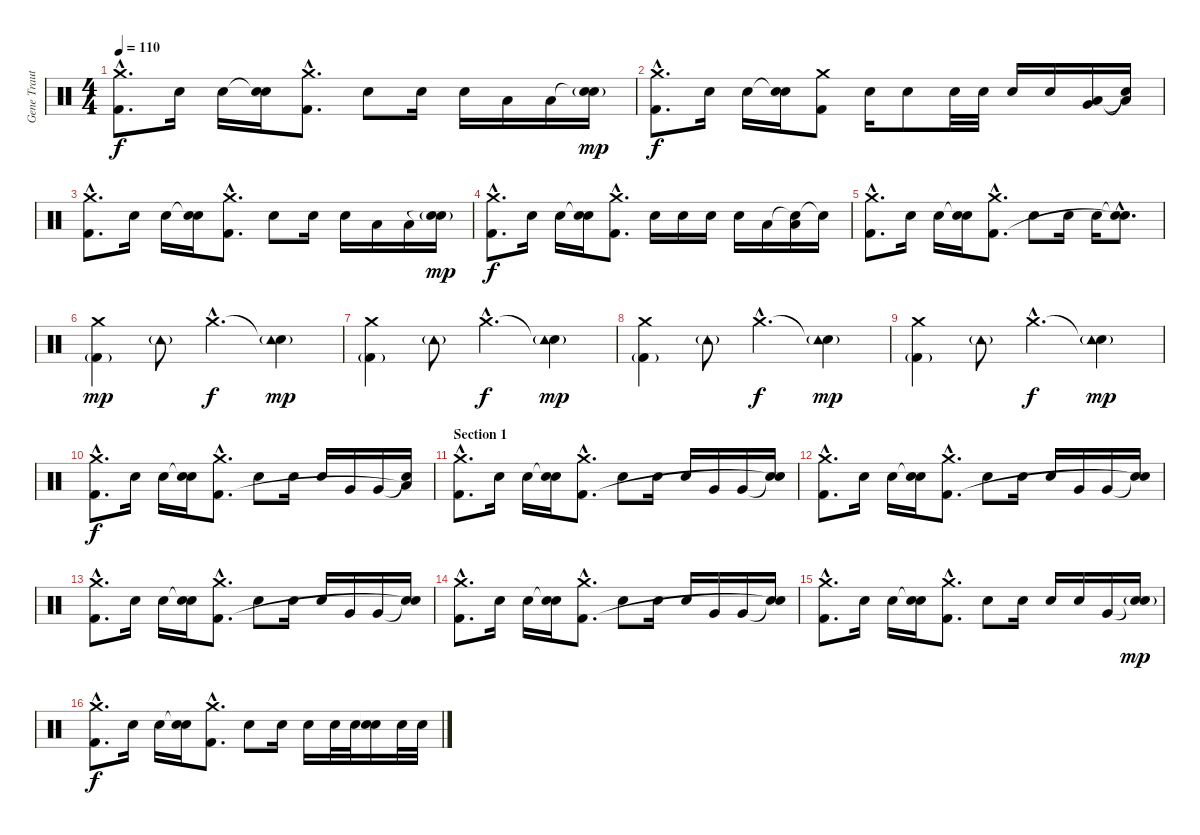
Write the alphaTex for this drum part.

\track ("Gene Trautmann (Drums)" "Gene Traut") {instrument percussion}
\staff {score}
\articulation defaults
\ts (4 4)
\tempo 110
\clef neutral
\ks c
("Crash medium (hit)"{hac} "Kick (hit) 2"{hac}).8{d dy f} "Electric Snare (hit)".16 "Electric Snare (hit)".16 ("Snare (hit)"{t} "Electric Snare (hit)").16 ("Crash medium (hit)"{hac} "Kick (hit) 2"{hac}).8{d} "Electric Snare (hit)".8 "Electric Snare (hit)".16 "Electric Snare (hit)".16 "Low Floor Tom (hit)".16 "Low Floor Tom (hit)".16 ("Snare (hit)"{t} "Electric Snare (hit)"{g}).16{dy mp} |
("Crash medium (hit)"{hac} "Kick (hit) 2"{hac}).8{d dy f} "Electric Snare (hit)".16 "Electric Snare (hit)".16 ("Snare (hit)"{t} "Electric Snare (hit)").16 ("Crash medium (hit)" "Kick (hit) 2").8 "Electric Snare (hit)".16 "Electric Snare (hit)".8 "Electric Snare (hit)".32 "Electric Snare (hit)".32 "Electric Snare (hit)".16 "Electric Snare (hit)".16 ("Very Low Tom (hit)" "Low Floor Tom (hit)").16 ("Snare (hit)"{t} "Low Floor Tom (hit)"{t}).16 |
("Crash medium (hit)"{hac} "Kick (hit) 2"{hac}).8{d} "Electric Snare (hit)".16 "Electric Snare (hit)".16 ("Snare (hit)"{t} "Electric Snare (hit)").16 ("Crash medium (hit)"{hac} "Kick (hit) 2"{hac}).8{d} "Electric Snare (hit)".8 "Electric Snare (hit)".16 "Electric Snare (hit)".16 "Low Floor Tom (hit)".16 "Low Floor Tom (hit)".16 ("Snare (hit)"{t} "Electric Snare (hit)"{g}).16{dy mp} |
("Crash medium (hit)"{hac} "Kick (hit) 2"{hac}).8{d dy f} "Electric Snare (hit)".16 "Electric Snare (hit)".16 ("Snare (hit)"{t} "Electric Snare (hit)").16 ("Crash medium (hit)"{hac} "Kick (hit) 2"{hac}).8{d} "Electric Snare (hit)".16 "Electric Snare (hit)".16 "Electric Snare (hit)".16 "Electric Snare (hit)".16 "Low Floor Tom (hit)".16 ("Snare (hit)"{t} "Low Floor Tom (hit)").16 "Snare (hit)"{t}.16 |
("Crash medium (hit)"{hac} "Kick (hit) 2"{hac}).8{d} "Electric Snare (hit)".16 "Electric Snare (hit)".16 ("Snare (hit)"{t} "Electric Snare (hit)").16 ("Crash medium (hit)"{hac} "Kick (hit) 2"{hac}).8{d} "Electric Snare (hit)".8 "Electric Snare (hit)".16 "Electric Snare (hit)".16 ("Snare (hit)"{hac t} "Electric Snare (hit)"{hac t}).8{d} |
("Crash medium (hit)" "Kick (hit) 2"{g}).4{dy mp} "Tambourine (hit)"{g}.8 "Crash medium (hit)"{hac}.4{d dy f} ("Snare (hit)"{t} "Tambourine (hit)"{g}).4{dy mp} |
("Crash medium (hit)" "Kick (hit) 2"{g}).4 "Tambourine (hit)"{g}.8 "Crash medium (hit)"{hac}.4{d dy f} ("Snare (hit)"{t} "Tambourine (hit)"{g}).4{dy mp} |
("Crash medium (hit)" "Kick (hit) 2"{g}).4 "Tambourine (hit)"{g}.8 "Crash medium (hit)"{hac}.4{d dy f} ("Snare (hit)"{t} "Tambourine (hit)"{g}).4{dy mp} |
("Crash medium (hit)" "Kick (hit) 2"{g}).4 "Tambourine (hit)"{g}.8 "Crash medium (hit)"{hac}.4{d dy f} ("Snare (hit)"{t} "Tambourine (hit)"{g}).4{dy mp} |
("Crash medium (hit)"{hac} "Kick (hit) 2"{hac}).8{d dy f} "Electric Snare (hit)".16 "Electric Snare (hit)".16 ("Snare (hit)"{t} "Electric Snare (hit)").16 ("Crash medium (hit)"{hac} "Kick (hit) 2"{hac}).8{d} "Electric Snare (hit)".8 "Electric Snare (hit)".16 "Electric Snare (hit)".16 "Very Low Tom (hit)".16 "Very Low Tom (hit)".16 ("Snare (hit)"{t} "Low Floor Tom (hit)"{t}).16 |
\section ("" "Section 1")
("Crash medium (hit)"{hac} "Kick (hit) 2"{hac}).8{d} "Electric Snare (hit)".16 "Electric Snare (hit)".16 ("Snare (hit)"{t} "Electric Snare (hit)").16 ("Crash medium (hit)"{hac} "Kick (hit) 2"{hac}).8{d} "Electric Snare (hit)".8 "Electric Snare (hit)".16 "Electric Snare (hit)".16 "Very Low Tom (hit)".16 "Very Low Tom (hit)".16 ("Snare (hit)"{t} "Snare (hit)"{t}).16 |
("Crash medium (hit)"{hac} "Kick (hit) 2"{hac}).8{d} "Electric Snare (hit)".16 "Electric Snare (hit)".16 ("Snare (hit)"{t} "Electric Snare (hit)").16 ("Crash medium (hit)"{hac} "Kick (hit) 2"{hac}).8{d} "Electric Snare (hit)".8 "Electric Snare (hit)".16 "Electric Snare (hit)".16 "Very Low Tom (hit)".16 "Very Low Tom (hit)".16 ("Snare (hit)"{t} "Snare (hit)"{t}).16 |
("Crash medium (hit)"{hac} "Kick (hit) 2"{hac}).8{d} "Electric Snare (hit)".16 "Electric Snare (hit)".16 ("Snare (hit)"{t} "Electric Snare (hit)").16 ("Crash medium (hit)"{hac} "Kick (hit) 2"{hac}).8{d} "Electric Snare (hit)".8 "Electric Snare (hit)".16 "Electric Snare (hit)".16 "Very Low Tom (hit)".16 "Very Low Tom (hit)".16 ("Snare (hit)"{t} "Snare (hit)"{t}).16 |
("Crash medium (hit)"{hac} "Kick (hit) 2"{hac}).8{d} "Electric Snare (hit)".16 "Electric Snare (hit)".16 ("Snare (hit)"{t} "Electric Snare (hit)").16 ("Crash medium (hit)"{hac} "Kick (hit) 2"{hac}).8{d} "Electric Snare (hit)".8 "Electric Snare (hit)".16 "Electric Snare (hit)".16 "Very Low Tom (hit)".16 "Very Low Tom (hit)".16 ("Snare (hit)"{t} "Snare (hit)"{t}).16 |
("Crash medium (hit)"{hac} "Kick (hit) 2"{hac}).8{d} "Electric Snare (hit)".16 "Electric Snare (hit)".16 ("Snare (hit)"{t} "Electric Snare (hit)").16 ("Crash medium (hit)"{hac} "Kick (hit) 2"{hac}).8{d} "Electric Snare (hit)".8 "Electric Snare (hit)".16 "Electric Snare (hit)".16 "Electric Snare (hit)".16 "Very Low Tom (hit)".16 ("Snare (hit)"{t} "Electric Snare (hit)"{g}).16{dy mp} |
("Crash medium (hit)"{hac} "Kick (hit) 2"{hac}).8{d dy f} "Electric Snare (hit)".16 "Electric Snare (hit)".16 ("Snare (hit)"{t} "Electric Snare (hit)").16 ("Crash medium (hit)"{hac} "Kick (hit) 2"{hac}).8{d} "Electric Snare (hit)".8 "Electric Snare (hit)".16 "Electric Snare (hit)".16 "Electric Snare (hit)".32 "Electric Snare (hit)".32 ("Snare (hit)"{t} "Electric Snare (hit)").16 "Electric Snare (hit)".32 "Electric Snare (hit)".32
